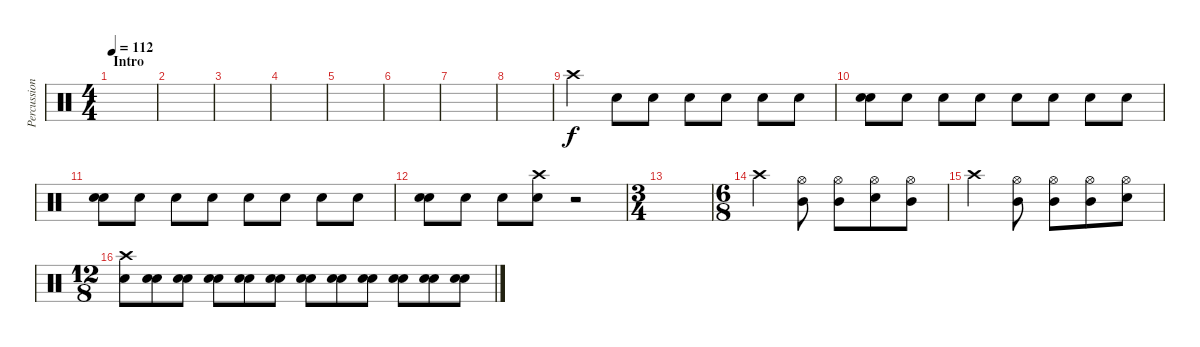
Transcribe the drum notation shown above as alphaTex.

\track ("Percussions" "Percussion") {instrument percussion}
\staff {score}
\articulation defaults
\ts (4 4)
\section ("" "Intro")
\tempo 112
\clef neutral
\ks c
|
|
|
|
|
|
|
|
"Crash high (hit)".4 "Snare (hit) 2".8 "Snare (hit) 2".8 "Snare (hit) 2".8 "Snare (hit) 2".8 "Snare (hit) 2".8 "Snare (hit) 2".8 |
("Snare (hit) 2" "Snare (hit) 2").8 "Snare (hit) 2".8 "Snare (hit) 2".8 "Snare (hit) 2".8 "Snare (hit) 2".8 "Snare (hit) 2".8 "Snare (hit) 2".8 "Snare (hit) 2".8 |
("Snare (hit) 2" "Snare (hit) 2").8 "Snare (hit) 2".8 "Snare (hit) 2".8 "Snare (hit) 2".8 "Snare (hit) 2".8 "Snare (hit) 2".8 "Snare (hit) 2".8 "Snare (hit) 2".8 |
("Snare (hit) 2" "Snare (hit) 2").8 "Snare (hit) 2".8 "Snare (hit) 2".8 ("Crash high (hit)" "Snare (hit) 2").8 r.2 |
\ts (3 4)
|
\ts (6 8)
"Crash high (hit)".4 ("Mid Tom (hit)" "Hi-Hat (open)").8 ("Mid Tom (hit)" "Hi-Hat (open)").8 ("Snare (hit) 2" "Hi-Hat (open)").8 ("Mid Tom (hit)" "Hi-Hat (open)").8 |
"Crash high (hit)".4 ("Mid Tom (hit)" "Hi-Hat (open)").8 ("Mid Tom (hit)" "Hi-Hat (open)").8 ("Mid Tom (hit)" "Hi-Hat (open)").8 ("Snare (hit) 2" "Hi-Hat (open)").8 |
\ts (12 8)
("Snare (hit) 2" "Crash high (hit)").8 ("Snare (hit) 2" "Snare (hit) 2").8 ("Snare (hit) 2" "Snare (hit) 2").8 ("Snare (hit) 2" "Snare (hit) 2").8 ("Snare (hit) 2" "Snare (hit) 2").8 ("Snare (hit) 2" "Snare (hit) 2").8 ("Snare (hit) 2" "Snare (hit) 2").8 ("Snare (hit) 2" "Snare (hit) 2").8 ("Snare (hit) 2" "Snare (hit) 2").8 ("Snare (hit) 2" "Snare (hit) 2").8 ("Snare (hit) 2" "Snare (hit) 2").8 ("Snare (hit) 2" "Snare (hit) 2").8
